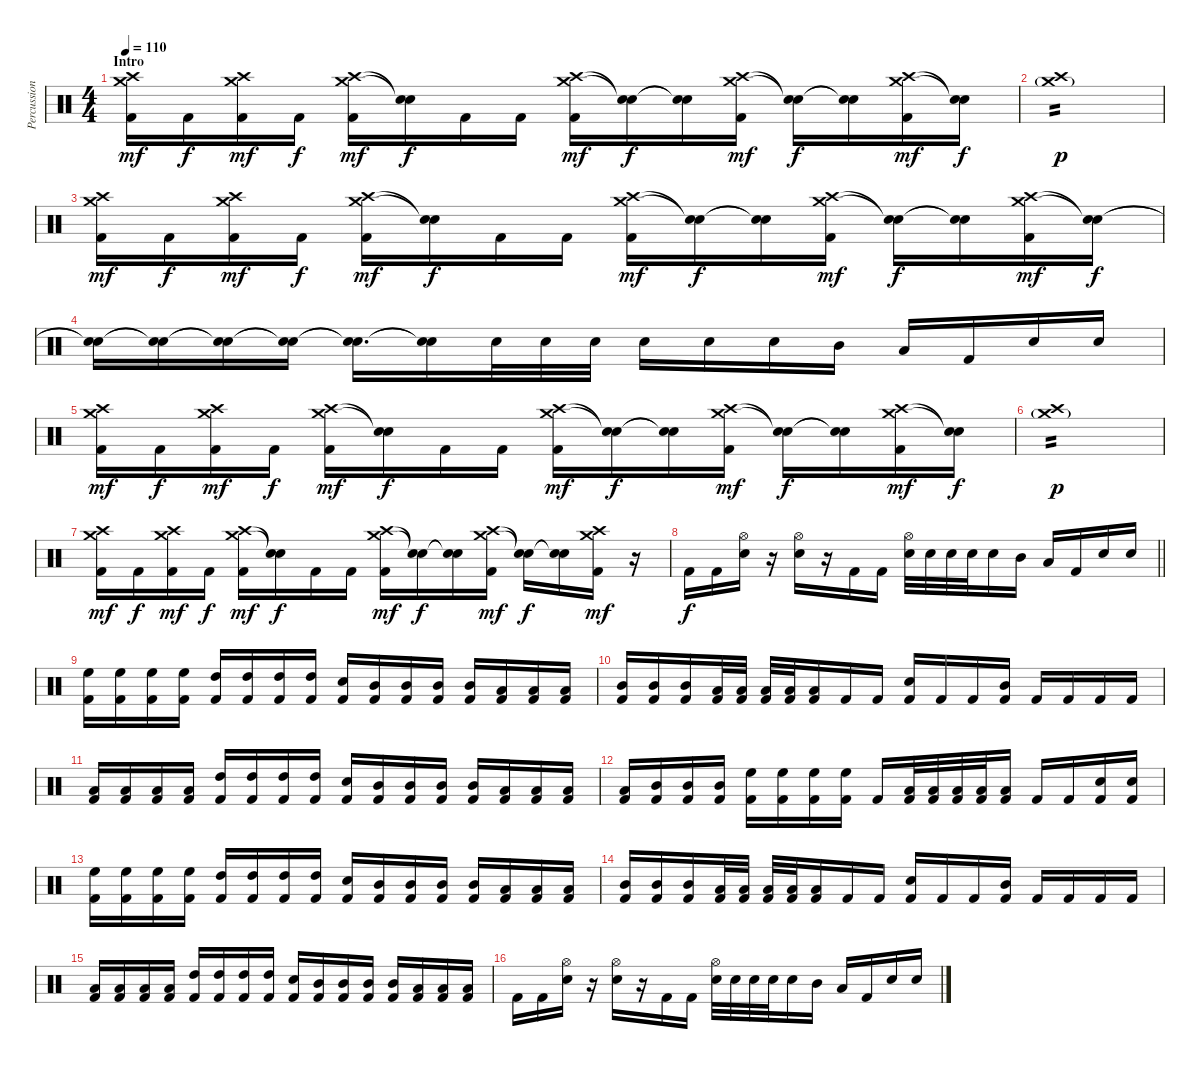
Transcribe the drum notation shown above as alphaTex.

\track ("Percussion" "Percussion") {instrument percussion}
\staff {score}
\articulation defaults
\ts (4 4)
\section ("" "Intro")
\tempo 110
\clef neutral
\ks c
("Crash high (hit)" "Crash medium (hit)" "Kick (hit) 2").16{dy mf} "Kick (hit) 2".16{dy f} ("Crash high (hit)" "Crash medium (hit)" "Kick (hit) 2").16{dy mf} "Kick (hit) 2".16{dy f} ("Crash high (hit)" "Crash medium (hit)" "Kick (hit) 2").16{dy mf} ("Snare (hit)"{t} "Snare (hit)"{t}).16{dy f} "Kick (hit) 2".16 "Kick (hit) 2".16 ("Crash high (hit)" "Crash medium (hit)" "Kick (hit) 2").16{dy mf} ("Snare (hit)"{t} "Snare (hit)"{t}).16{dy f} ("Snare (hit)"{t} "Snare (hit)"{t}).16 ("Crash high (hit)" "Crash medium (hit)" "Kick (hit) 2").16{dy mf} ("Snare (hit)"{t} "Snare (hit)"{t}).16{dy f} ("Snare (hit)"{t} "Snare (hit)"{t}).16 ("Crash high (hit)" "Crash medium (hit)" "Kick (hit) 2").16{dy mf} ("Snare (hit)"{t} "Snare (hit)"{t}).16{dy f} |
("Crash high (hit)" "Crash medium (hit)"{g}).1{tp 2 dy p} |
("Crash high (hit)" "Crash medium (hit)" "Kick (hit) 2").16{dy mf} "Kick (hit) 2".16{dy f} ("Crash high (hit)" "Crash medium (hit)" "Kick (hit) 2").16{dy mf} "Kick (hit) 2".16{dy f} ("Crash high (hit)" "Crash medium (hit)" "Kick (hit) 2").16{dy mf} ("Snare (hit)"{t} "Snare (hit)"{t}).16{dy f} "Kick (hit) 2".16 "Kick (hit) 2".16 ("Crash high (hit)" "Crash medium (hit)" "Kick (hit) 2").16{dy mf} ("Snare (hit)"{t} "Snare (hit)"{t}).16{dy f} ("Snare (hit)"{t} "Snare (hit)"{t}).16 ("Crash high (hit)" "Crash medium (hit)" "Kick (hit) 2").16{dy mf} ("Snare (hit)"{t} "Snare (hit)"{t}).16{dy f} ("Snare (hit)"{t} "Snare (hit)"{t}).16 ("Crash high (hit)" "Crash medium (hit)" "Kick (hit) 2").16{dy mf} ("Snare (hit)"{t} "Snare (hit)"{t}).16{dy f} |
("Snare (hit)"{t} "Snare (hit)"{t}).16 ("Snare (hit)"{t} "Snare (hit)"{t}).16 ("Snare (hit)"{t} "Snare (hit)"{t}).16 ("Snare (hit)"{t} "Snare (hit)"{t}).16 ("Snare (hit)"{t} "Snare (hit)"{t}).16{d} ("Snare (hit)"{t} "Snare (hit)"{t}).16 "Snare (hit) 2".32 "Snare (hit) 2".32 "Snare (hit) 2".32 "Snare (hit) 2".16 "Snare (hit) 2".16 "Snare (hit) 2".16 "Mid Tom (hit)".16 "Low Tom (hit)".16 "Kick (hit) 2".16 "Snare (hit) 2".16 "Snare (hit) 2".16 |
("Crash high (hit)" "Crash medium (hit)" "Kick (hit) 2").16{dy mf} "Kick (hit) 2".16{dy f} ("Crash high (hit)" "Crash medium (hit)" "Kick (hit) 2").16{dy mf} "Kick (hit) 2".16{dy f} ("Crash high (hit)" "Crash medium (hit)" "Kick (hit) 2").16{dy mf} ("Snare (hit)"{t} "Snare (hit)"{t}).16{dy f} "Kick (hit) 2".16 "Kick (hit) 2".16 ("Crash high (hit)" "Crash medium (hit)" "Kick (hit) 2").16{dy mf} ("Snare (hit)"{t} "Snare (hit)"{t}).16{dy f} ("Snare (hit)"{t} "Snare (hit)"{t}).16 ("Crash high (hit)" "Crash medium (hit)" "Kick (hit) 2").16{dy mf} ("Snare (hit)"{t} "Snare (hit)"{t}).16{dy f} ("Snare (hit)"{t} "Snare (hit)"{t}).16 ("Crash high (hit)" "Crash medium (hit)" "Kick (hit) 2").16{dy mf} ("Snare (hit)"{t} "Snare (hit)"{t}).16{dy f} |
("Crash high (hit)" "Crash medium (hit)"{g}).1{tp 2 dy p} |
("Crash high (hit)" "Crash medium (hit)" "Kick (hit) 2").16{dy mf} "Kick (hit) 2".16{dy f} ("Crash high (hit)" "Crash medium (hit)" "Kick (hit) 2").16{dy mf} "Kick (hit) 2".16{dy f} ("Crash high (hit)" "Crash medium (hit)" "Kick (hit) 2").16{dy mf} ("Snare (hit)"{t} "Snare (hit)"{t}).16{dy f} "Kick (hit) 2".16 "Kick (hit) 2".16 ("Crash high (hit)" "Crash medium (hit)" "Kick (hit) 2").16{dy mf} ("Snare (hit)"{t} "Snare (hit)"{t}).16{dy f} ("Snare (hit)"{t} "Snare (hit)"{t}).16 ("Crash high (hit)" "Crash medium (hit)" "Kick (hit) 2").16{dy mf} ("Snare (hit)"{t} "Snare (hit)"{t}).16{dy f} ("Snare (hit)"{t} "Snare (hit)"{t}).16 ("Crash high (hit)" "Crash medium (hit)" "Kick (hit) 2").16{dy mf} r.16 |
\barLineRight lightlight "Kick (hit) 2".16{dy f} "Kick (hit) 2".16
("Snare (hit) 2" "Hi-Hat (open)").16 r.16 ("Snare (hit) 2" "Hi-Hat (open)").16 r.16 "Kick (hit) 2".16 "Kick (hit) 2".16 ("Snare (hit) 2" "Hi-Hat (open)").32 "Snare (hit) 2".32 "Snare (hit) 2".32 "Snare (hit) 2".32 "Snare (hit) 2".16 "Mid Tom (hit)".16 "Low Tom (hit)".16 "Kick (hit) 2".16 "Snare (hit) 2".16 "Snare (hit) 2".16 |
\section ("" "")
("High Floor Tom (hit)" "Kick (hit) 2").16 ("High Floor Tom (hit)" "Kick (hit) 2").16 ("High Floor Tom (hit)" "Kick (hit) 2").16 ("High Floor Tom (hit)" "Kick (hit) 2").16 ("High Tom (hit)" "Kick (hit) 2").16 ("High Tom (hit)" "Kick (hit) 2").16 ("High Tom (hit)" "Kick (hit) 2").16 ("High Tom (hit)" "Kick (hit) 2").16 ("Snare (hit) 2" "Kick (hit) 2").16 ("Mid Tom (hit)" "Kick (hit) 2").16 ("Mid Tom (hit)" "Kick (hit) 2").16 ("Mid Tom (hit)" "Kick (hit) 2").16 ("Mid Tom (hit)" "Kick (hit) 2").16 ("Low Tom (hit)" "Kick (hit) 2").16 ("Low Tom (hit)" "Kick (hit) 2").16 ("Low Tom (hit)" "Kick (hit) 2").16 |
("Mid Tom (hit)" "Kick (hit) 2").16 ("Mid Tom (hit)" "Kick (hit) 2").16 ("Mid Tom (hit)" "Kick (hit) 2").16 ("Low Tom (hit)" "Kick (hit) 2").32 ("Low Tom (hit)" "Kick (hit) 2").32 ("Low Tom (hit)" "Kick (hit) 2").32 ("Low Tom (hit)" "Kick (hit) 2").32 ("Low Tom (hit)" "Kick (hit) 2").16 "Kick (hit) 2".16 "Kick (hit) 2".16 ("Snare (hit) 2" "Kick (hit) 2").16 "Kick (hit) 2".16 "Kick (hit) 2".16 ("Mid Tom (hit)" "Kick (hit) 2").16 "Kick (hit) 2".16 "Kick (hit) 2".16 "Kick (hit) 2".16 "Kick (hit) 2".16 |
("Low Tom (hit)" "Kick (hit) 2").16 ("Low Tom (hit)" "Kick (hit) 2").16 ("Low Tom (hit)" "Kick (hit) 2").16 ("Low Tom (hit)" "Kick (hit) 2").16 ("High Tom (hit)" "Kick (hit) 2").16 ("High Tom (hit)" "Kick (hit) 2").16 ("High Tom (hit)" "Kick (hit) 2").16 ("High Tom (hit)" "Kick (hit) 2").16 ("Snare (hit) 2" "Kick (hit) 2").16 ("Mid Tom (hit)" "Kick (hit) 2").16 ("Mid Tom (hit)" "Kick (hit) 2").16 ("Mid Tom (hit)" "Kick (hit) 2").16 ("Mid Tom (hit)" "Kick (hit) 2").16 ("Low Tom (hit)" "Kick (hit) 2").16 ("Low Tom (hit)" "Kick (hit) 2").16 ("Low Tom (hit)" "Kick (hit) 2").16 |
("Low Tom (hit)" "Kick (hit) 2").16 ("Mid Tom (hit)" "Kick (hit) 2").16 ("Mid Tom (hit)" "Kick (hit) 2").16 ("Mid Tom (hit)" "Kick (hit) 2").16 ("High Floor Tom (hit)" "Kick (hit) 2").16 ("High Floor Tom (hit)" "Kick (hit) 2").16 ("High Floor Tom (hit)" "Kick (hit) 2").16 ("High Floor Tom (hit)" "Kick (hit) 2").16 "Kick (hit) 2".16 ("Low Tom (hit)" "Kick (hit) 2").32 ("Low Tom (hit)" "Kick (hit) 2").32 ("Low Tom (hit)" "Kick (hit) 2").32 ("Low Tom (hit)" "Kick (hit) 2").32 ("Low Tom (hit)" "Kick (hit) 2").16 "Kick (hit) 2".16 "Kick (hit) 2".16 ("Snare (hit) 2" "Kick (hit) 2").16 ("Snare (hit) 2" "Kick (hit) 2").16 |
("High Floor Tom (hit)" "Kick (hit) 2").16 ("High Floor Tom (hit)" "Kick (hit) 2").16 ("High Floor Tom (hit)" "Kick (hit) 2").16 ("High Floor Tom (hit)" "Kick (hit) 2").16 ("High Tom (hit)" "Kick (hit) 2").16 ("High Tom (hit)" "Kick (hit) 2").16 ("High Tom (hit)" "Kick (hit) 2").16 ("High Tom (hit)" "Kick (hit) 2").16 ("Snare (hit) 2" "Kick (hit) 2").16 ("Mid Tom (hit)" "Kick (hit) 2").16 ("Mid Tom (hit)" "Kick (hit) 2").16 ("Mid Tom (hit)" "Kick (hit) 2").16 ("Mid Tom (hit)" "Kick (hit) 2").16 ("Low Tom (hit)" "Kick (hit) 2").16 ("Low Tom (hit)" "Kick (hit) 2").16 ("Low Tom (hit)" "Kick (hit) 2").16 |
("Mid Tom (hit)" "Kick (hit) 2").16 ("Mid Tom (hit)" "Kick (hit) 2").16 ("Mid Tom (hit)" "Kick (hit) 2").16 ("Low Tom (hit)" "Kick (hit) 2").32 ("Low Tom (hit)" "Kick (hit) 2").32 ("Low Tom (hit)" "Kick (hit) 2").32 ("Low Tom (hit)" "Kick (hit) 2").32 ("Low Tom (hit)" "Kick (hit) 2").16 "Kick (hit) 2".16 "Kick (hit) 2".16 ("Snare (hit) 2" "Kick (hit) 2").16 "Kick (hit) 2".16 "Kick (hit) 2".16 ("Mid Tom (hit)" "Kick (hit) 2").16 "Kick (hit) 2".16 "Kick (hit) 2".16 "Kick (hit) 2".16 "Kick (hit) 2".16 |
("Low Tom (hit)" "Kick (hit) 2").16 ("Low Tom (hit)" "Kick (hit) 2").16 ("Low Tom (hit)" "Kick (hit) 2").16 ("Low Tom (hit)" "Kick (hit) 2").16 ("High Tom (hit)" "Kick (hit) 2").16 ("High Tom (hit)" "Kick (hit) 2").16 ("High Tom (hit)" "Kick (hit) 2").16 ("High Tom (hit)" "Kick (hit) 2").16 ("Snare (hit) 2" "Kick (hit) 2").16 ("Mid Tom (hit)" "Kick (hit) 2").16 ("Mid Tom (hit)" "Kick (hit) 2").16 ("Mid Tom (hit)" "Kick (hit) 2").16 ("Mid Tom (hit)" "Kick (hit) 2").16 ("Low Tom (hit)" "Kick (hit) 2").16 ("Low Tom (hit)" "Kick (hit) 2").16 ("Low Tom (hit)" "Kick (hit) 2").16 |
"Kick (hit) 2".16 "Kick (hit) 2".16 ("Snare (hit) 2" "Hi-Hat (open)").16 r.16 ("Snare (hit) 2" "Hi-Hat (open)").16 r.16 "Kick (hit) 2".16 "Kick (hit) 2".16 ("Snare (hit) 2" "Hi-Hat (open)").32 "Snare (hit) 2".32 "Snare (hit) 2".32 "Snare (hit) 2".32 "Snare (hit) 2".16 "Mid Tom (hit)".16 "Low Tom (hit)".16 "Kick (hit) 2".16 "Snare (hit) 2".16 "Snare (hit) 2".16
